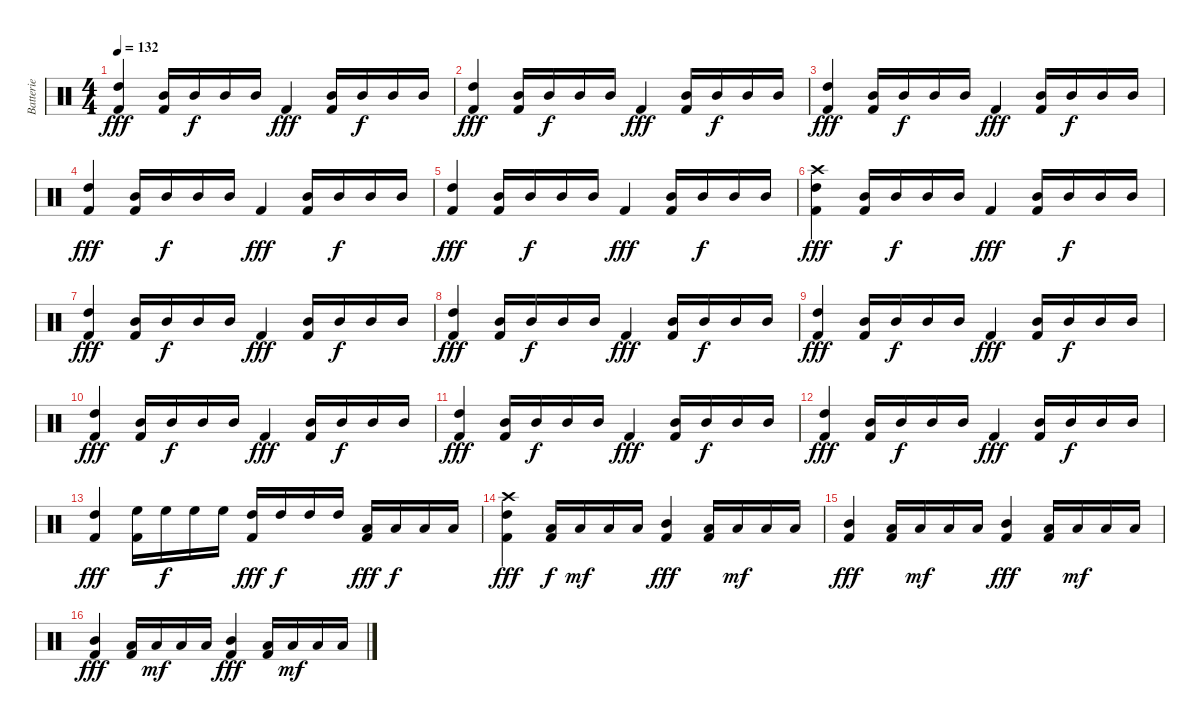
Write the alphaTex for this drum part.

\track ("Batterie" "Batterie") {instrument percussion}
\staff {score}
\articulation defaults
\ts (4 4)
\tempo 132
\clef neutral
\ks c
("High Tom (hit)" "Kick (hit) 2").4{dy fff} ("Mid Tom (hit)" "Kick (hit) 2").16 "Mid Tom (hit)".16{dy f} "Mid Tom (hit)".16 "Mid Tom (hit)".16 "Kick (hit) 2".4{dy fff} ("Mid Tom (hit)" "Kick (hit) 2").16 "Mid Tom (hit)".16{dy f} "Mid Tom (hit)".16 "Mid Tom (hit)".16 |
("High Tom (hit)" "Kick (hit) 2").4{dy fff} ("Mid Tom (hit)" "Kick (hit) 2").16 "Mid Tom (hit)".16{dy f} "Mid Tom (hit)".16 "Mid Tom (hit)".16 "Kick (hit) 2".4{dy fff} ("Mid Tom (hit)" "Kick (hit) 2").16 "Mid Tom (hit)".16{dy f} "Mid Tom (hit)".16 "Mid Tom (hit)".16 |
("High Tom (hit)" "Kick (hit) 2").4{dy fff} ("Mid Tom (hit)" "Kick (hit) 2").16 "Mid Tom (hit)".16{dy f} "Mid Tom (hit)".16 "Mid Tom (hit)".16 "Kick (hit) 2".4{dy fff} ("Mid Tom (hit)" "Kick (hit) 2").16 "Mid Tom (hit)".16{dy f} "Mid Tom (hit)".16 "Mid Tom (hit)".16 |
("High Tom (hit)" "Kick (hit) 2").4{dy fff} ("Mid Tom (hit)" "Kick (hit) 2").16 "Mid Tom (hit)".16{dy f} "Mid Tom (hit)".16 "Mid Tom (hit)".16 "Kick (hit) 2".4{dy fff} ("Mid Tom (hit)" "Kick (hit) 2").16 "Mid Tom (hit)".16{dy f} "Mid Tom (hit)".16 "Mid Tom (hit)".16 |
("High Tom (hit)" "Kick (hit) 2").4{dy fff} ("Mid Tom (hit)" "Kick (hit) 2").16 "Mid Tom (hit)".16{dy f} "Mid Tom (hit)".16 "Mid Tom (hit)".16 "Kick (hit) 2".4{dy fff} ("Mid Tom (hit)" "Kick (hit) 2").16 "Mid Tom (hit)".16{dy f} "Mid Tom (hit)".16 "Mid Tom (hit)".16 |
("Crash high (hit)" "High Tom (hit)" "Kick (hit) 2").4{dy fff} ("Mid Tom (hit)" "Kick (hit) 2").16 "Mid Tom (hit)".16{dy f} "Mid Tom (hit)".16 "Mid Tom (hit)".16 "Kick (hit) 2".4{dy fff} ("Mid Tom (hit)" "Kick (hit) 2").16 "Mid Tom (hit)".16{dy f} "Mid Tom (hit)".16 "Mid Tom (hit)".16 |
("High Tom (hit)" "Kick (hit) 2").4{dy fff} ("Mid Tom (hit)" "Kick (hit) 2").16 "Mid Tom (hit)".16{dy f} "Mid Tom (hit)".16 "Mid Tom (hit)".16 "Kick (hit) 2".4{dy fff} ("Mid Tom (hit)" "Kick (hit) 2").16 "Mid Tom (hit)".16{dy f} "Mid Tom (hit)".16 "Mid Tom (hit)".16 |
("High Tom (hit)" "Kick (hit) 2").4{dy fff} ("Mid Tom (hit)" "Kick (hit) 2").16 "Mid Tom (hit)".16{dy f} "Mid Tom (hit)".16 "Mid Tom (hit)".16 "Kick (hit) 2".4{dy fff} ("Mid Tom (hit)" "Kick (hit) 2").16 "Mid Tom (hit)".16{dy f} "Mid Tom (hit)".16 "Mid Tom (hit)".16 |
("High Tom (hit)" "Kick (hit) 2").4{dy fff} ("Mid Tom (hit)" "Kick (hit) 2").16 "Mid Tom (hit)".16{dy f} "Mid Tom (hit)".16 "Mid Tom (hit)".16 "Kick (hit) 2".4{dy fff} ("Mid Tom (hit)" "Kick (hit) 2").16 "Mid Tom (hit)".16{dy f} "Mid Tom (hit)".16 "Mid Tom (hit)".16 |
("High Tom (hit)" "Kick (hit) 2").4{dy fff} ("Mid Tom (hit)" "Kick (hit) 2").16 "Mid Tom (hit)".16{dy f} "Mid Tom (hit)".16 "Mid Tom (hit)".16 "Kick (hit) 2".4{dy fff} ("Mid Tom (hit)" "Kick (hit) 2").16 "Mid Tom (hit)".16{dy f} "Mid Tom (hit)".16 "Mid Tom (hit)".16 |
("High Tom (hit)" "Kick (hit) 2").4{dy fff} ("Mid Tom (hit)" "Kick (hit) 2").16 "Mid Tom (hit)".16{dy f} "Mid Tom (hit)".16 "Mid Tom (hit)".16 "Kick (hit) 2".4{dy fff} ("Mid Tom (hit)" "Kick (hit) 2").16 "Mid Tom (hit)".16{dy f} "Mid Tom (hit)".16 "Mid Tom (hit)".16 |
("High Tom (hit)" "Kick (hit) 2").4{dy fff} ("Mid Tom (hit)" "Kick (hit) 2").16 "Mid Tom (hit)".16{dy f} "Mid Tom (hit)".16 "Mid Tom (hit)".16 "Kick (hit) 2".4{dy fff} ("Mid Tom (hit)" "Kick (hit) 2").16 "Mid Tom (hit)".16{dy f} "Mid Tom (hit)".16 "Mid Tom (hit)".16 |
("High Tom (hit)" "Kick (hit) 2").4{dy fff} ("High Floor Tom (hit)" "Kick (hit) 2").16 "High Floor Tom (hit)".16{dy f} "High Floor Tom (hit)".16 "High Floor Tom (hit)".16 ("High Tom (hit)" "Kick (hit) 2").16{dy fff} "High Tom (hit)".16{dy f} "High Tom (hit)".16 "High Tom (hit)".16 ("Low Tom (hit)" "Kick (hit) 2").16{dy fff} "Low Tom (hit)".16{dy f} "Low Tom (hit)".16 "Low Tom (hit)".16 |
("Crash high (hit)" "High Tom (hit)" "Kick (hit) 2").4{dy fff} ("Low Tom (hit)" "Kick (hit) 2").16{dy f} "Low Tom (hit)".16{dy mf} "Low Tom (hit)".16 "Low Tom (hit)".16 ("Mid Tom (hit)" "Kick (hit) 2").4{dy fff} ("Low Tom (hit)" "Kick (hit) 2").16 "Low Tom (hit)".16{dy mf} "Low Tom (hit)".16 "Low Tom (hit)".16 |
("Mid Tom (hit)" "Kick (hit) 2").4{dy fff} ("Low Tom (hit)" "Kick (hit) 2").16 "Low Tom (hit)".16{dy mf} "Low Tom (hit)".16 "Low Tom (hit)".16 ("Mid Tom (hit)" "Kick (hit) 2").4{dy fff} ("Low Tom (hit)" "Kick (hit) 2").16 "Low Tom (hit)".16{dy mf} "Low Tom (hit)".16 "Low Tom (hit)".16 |
("Mid Tom (hit)" "Kick (hit) 2").4{dy fff} ("Low Tom (hit)" "Kick (hit) 2").16 "Low Tom (hit)".16{dy mf} "Low Tom (hit)".16 "Low Tom (hit)".16 ("Mid Tom (hit)" "Kick (hit) 2").4{dy fff} ("Low Tom (hit)" "Kick (hit) 2").16 "Low Tom (hit)".16{dy mf} "Low Tom (hit)".16 "Low Tom (hit)".16
